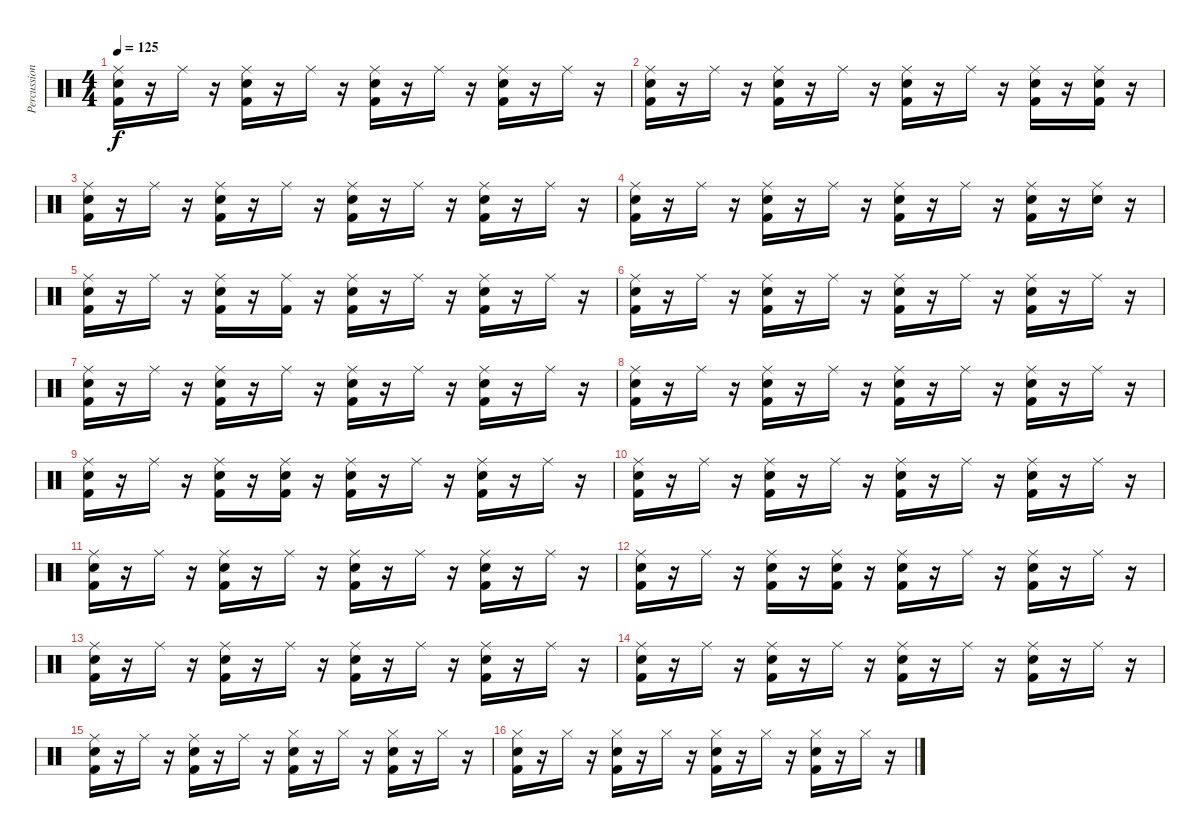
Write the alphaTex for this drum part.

\track ("Percussion" "Percussion") {instrument percussion}
\staff {score}
\articulation defaults
\ts (4 4)
\tempo 125
\clef neutral
\ks c
("Kick (hit) 2" "Snare (hit) 2" "Ride (middle)").16{dy f} r.16 "Ride (middle)".16 r.16 ("Kick (hit) 2" "Snare (hit) 2" "Ride (middle)").16 r.16 "Ride (middle)".16 r.16 ("Kick (hit) 2" "Snare (hit) 2" "Ride (middle)").16 r.16 "Ride (middle)".16 r.16 ("Kick (hit) 2" "Snare (hit) 2" "Ride (middle)").16 r.16 "Ride (middle)".16 r.16 |
("Kick (hit) 2" "Snare (hit) 2" "Ride (middle)").16 r.16 "Ride (middle)".16 r.16 ("Kick (hit) 2" "Snare (hit) 2" "Ride (middle)").16 r.16 "Ride (middle)".16 r.16 ("Kick (hit) 2" "Snare (hit) 2" "Ride (middle)").16 r.16 "Ride (middle)".16 r.16 ("Kick (hit) 2" "Snare (hit) 2" "Ride (middle)").16 r.16 ("Kick (hit) 2" "Snare (hit) 2" "Ride (middle)").16 r.16 |
("Kick (hit) 2" "Snare (hit) 2" "Ride (middle)").16 r.16 "Ride (middle)".16 r.16 ("Kick (hit) 2" "Snare (hit) 2" "Ride (middle)").16 r.16 "Ride (middle)".16 r.16 ("Kick (hit) 2" "Snare (hit) 2" "Ride (middle)").16 r.16 "Ride (middle)".16 r.16 ("Kick (hit) 2" "Snare (hit) 2" "Ride (middle)").16 r.16 "Ride (middle)".16 r.16 |
("Kick (hit) 2" "Snare (hit) 2" "Ride (middle)").16 r.16 "Ride (middle)".16 r.16 ("Kick (hit) 2" "Snare (hit) 2" "Ride (middle)").16 r.16 "Ride (middle)".16 r.16 ("Kick (hit) 2" "Snare (hit) 2" "Ride (middle)").16 r.16 "Ride (middle)".16 r.16 ("Kick (hit) 2" "Snare (hit) 2" "Ride (middle)").16 r.16 ("Snare (hit) 2" "Ride (middle)").16 r.16 |
("Kick (hit) 2" "Snare (hit) 2" "Ride (middle)").16 r.16 "Ride (middle)".16 r.16 ("Kick (hit) 2" "Snare (hit) 2" "Ride (middle)").16 r.16 ("Kick (hit) 2" "Ride (middle)").16 r.16 ("Kick (hit) 2" "Snare (hit) 2" "Ride (middle)").16 r.16 "Ride (middle)".16 r.16 ("Kick (hit) 2" "Snare (hit) 2" "Ride (middle)").16 r.16 "Ride (middle)".16 r.16 |
("Kick (hit) 2" "Snare (hit) 2" "Ride (middle)").16 r.16 "Ride (middle)".16 r.16 ("Kick (hit) 2" "Snare (hit) 2" "Ride (middle)").16 r.16 "Ride (middle)".16 r.16 ("Kick (hit) 2" "Snare (hit) 2" "Ride (middle)").16 r.16 "Ride (middle)".16 r.16 ("Kick (hit) 2" "Snare (hit) 2" "Ride (middle)").16 r.16 "Ride (middle)".16 r.16 |
("Kick (hit) 2" "Snare (hit) 2" "Ride (middle)").16 r.16 "Ride (middle)".16 r.16 ("Kick (hit) 2" "Snare (hit) 2" "Ride (middle)").16 r.16 "Ride (middle)".16 r.16 ("Kick (hit) 2" "Snare (hit) 2" "Ride (middle)").16 r.16 "Ride (middle)".16 r.16 ("Kick (hit) 2" "Snare (hit) 2" "Ride (middle)").16 r.16 "Ride (middle)".16 r.16 |
("Kick (hit) 2" "Snare (hit) 2" "Ride (middle)").16 r.16 "Ride (middle)".16 r.16 ("Kick (hit) 2" "Snare (hit) 2" "Ride (middle)").16 r.16 "Ride (middle)".16 r.16 ("Kick (hit) 2" "Snare (hit) 2" "Ride (middle)").16 r.16 "Ride (middle)".16 r.16 ("Kick (hit) 2" "Snare (hit) 2" "Ride (middle)").16 r.16 "Ride (middle)".16 r.16 |
("Kick (hit) 2" "Snare (hit) 2" "Ride (middle)").16 r.16 "Ride (middle)".16 r.16 ("Kick (hit) 2" "Snare (hit) 2" "Ride (middle)").16 r.16 ("Kick (hit) 2" "Snare (hit) 2" "Ride (middle)").16 r.16 ("Kick (hit) 2" "Snare (hit) 2" "Ride (middle)").16 r.16 "Ride (middle)".16 r.16 ("Kick (hit) 2" "Snare (hit) 2" "Ride (middle)").16 r.16 "Ride (middle)".16 r.16 |
("Kick (hit) 2" "Snare (hit) 2" "Ride (middle)").16 r.16 "Ride (middle)".16 r.16 ("Kick (hit) 2" "Snare (hit) 2" "Ride (middle)").16 r.16 "Ride (middle)".16 r.16 ("Kick (hit) 2" "Snare (hit) 2" "Ride (middle)").16 r.16 "Ride (middle)".16 r.16 ("Kick (hit) 2" "Snare (hit) 2" "Ride (middle)").16 r.16 "Ride (middle)".16 r.16 |
("Kick (hit) 2" "Snare (hit) 2" "Ride (middle)").16 r.16 "Ride (middle)".16 r.16 ("Kick (hit) 2" "Snare (hit) 2" "Ride (middle)").16 r.16 "Ride (middle)".16 r.16 ("Kick (hit) 2" "Snare (hit) 2" "Ride (middle)").16 r.16 "Ride (middle)".16 r.16 ("Kick (hit) 2" "Snare (hit) 2" "Ride (middle)").16 r.16 "Ride (middle)".16 r.16 |
("Kick (hit) 2" "Snare (hit) 2" "Ride (middle)").16 r.16 "Ride (middle)".16 r.16 ("Kick (hit) 2" "Snare (hit) 2" "Ride (middle)").16 r.16 ("Kick (hit) 2" "Snare (hit) 2" "Ride (middle)").16 r.16 ("Kick (hit) 2" "Snare (hit) 2" "Ride (middle)").16 r.16 "Ride (middle)".16 r.16 ("Kick (hit) 2" "Snare (hit) 2" "Ride (middle)").16 r.16 "Ride (middle)".16 r.16 |
("Kick (hit) 2" "Snare (hit) 2" "Ride (middle)").16 r.16 "Ride (middle)".16 r.16 ("Kick (hit) 2" "Snare (hit) 2" "Ride (middle)").16 r.16 "Ride (middle)".16 r.16 ("Kick (hit) 2" "Snare (hit) 2" "Ride (middle)").16 r.16 "Ride (middle)".16 r.16 ("Kick (hit) 2" "Snare (hit) 2" "Ride (middle)").16 r.16 "Ride (middle)".16 r.16 |
("Kick (hit) 2" "Snare (hit) 2" "Ride (middle)").16 r.16 "Ride (middle)".16 r.16 ("Kick (hit) 2" "Snare (hit) 2" "Ride (middle)").16 r.16 "Ride (middle)".16 r.16 ("Kick (hit) 2" "Snare (hit) 2" "Ride (middle)").16 r.16 "Ride (middle)".16 r.16 ("Kick (hit) 2" "Snare (hit) 2" "Ride (middle)").16 r.16 "Ride (middle)".16 r.16 |
("Kick (hit) 2" "Snare (hit) 2" "Ride (middle)").16 r.16 "Ride (middle)".16 r.16 ("Kick (hit) 2" "Snare (hit) 2" "Ride (middle)").16 r.16 "Ride (middle)".16 r.16 ("Kick (hit) 2" "Snare (hit) 2" "Hi-Hat (closed)").16 r.16 "Hi-Hat (closed)".16 r.16 ("Kick (hit) 2" "Snare (hit) 2" "Hi-Hat (closed)").16 r.16 "Hi-Hat (closed)".16 r.16 |
("Kick (hit) 2" "Snare (hit) 2" "Hi-Hat (closed)").16 r.16 "Hi-Hat (closed)".16 r.16 ("Kick (hit) 2" "Snare (hit) 2" "Hi-Hat (closed)").16 r.16 "Hi-Hat (closed)".16 r.16 ("Kick (hit) 2" "Snare (hit) 2" "Hi-Hat (closed)").16 r.16 "Hi-Hat (closed)".16 r.16 ("Kick (hit) 2" "Snare (hit) 2" "Hi-Hat (closed)").16 r.16 "Hi-Hat (closed)".16 r.16
